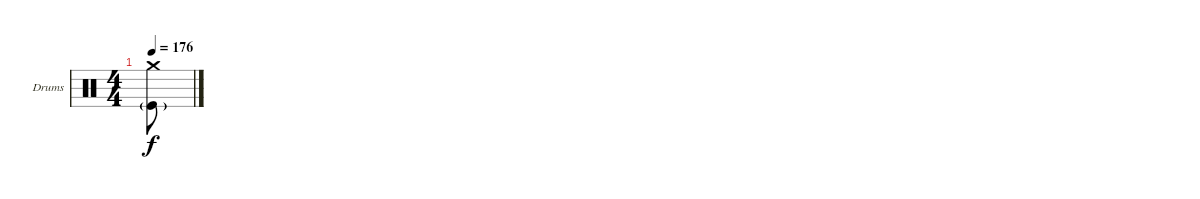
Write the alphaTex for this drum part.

\defaultSystemsLayout 4
\bracketExtendMode groupsimilarinstruments
\firstSystemTrackNameOrientation horizontal
\otherSystemsTrackNameOrientation horizontal
\track ("Drums" "Drums") {instrument percussion}
\staff {score}
\articulation defaults
\ts (4 4)
\tempo 176
\clef neutral
\ks c
("Crash medium (hit)" "Kick (hit)"{g}).8{dy f}
